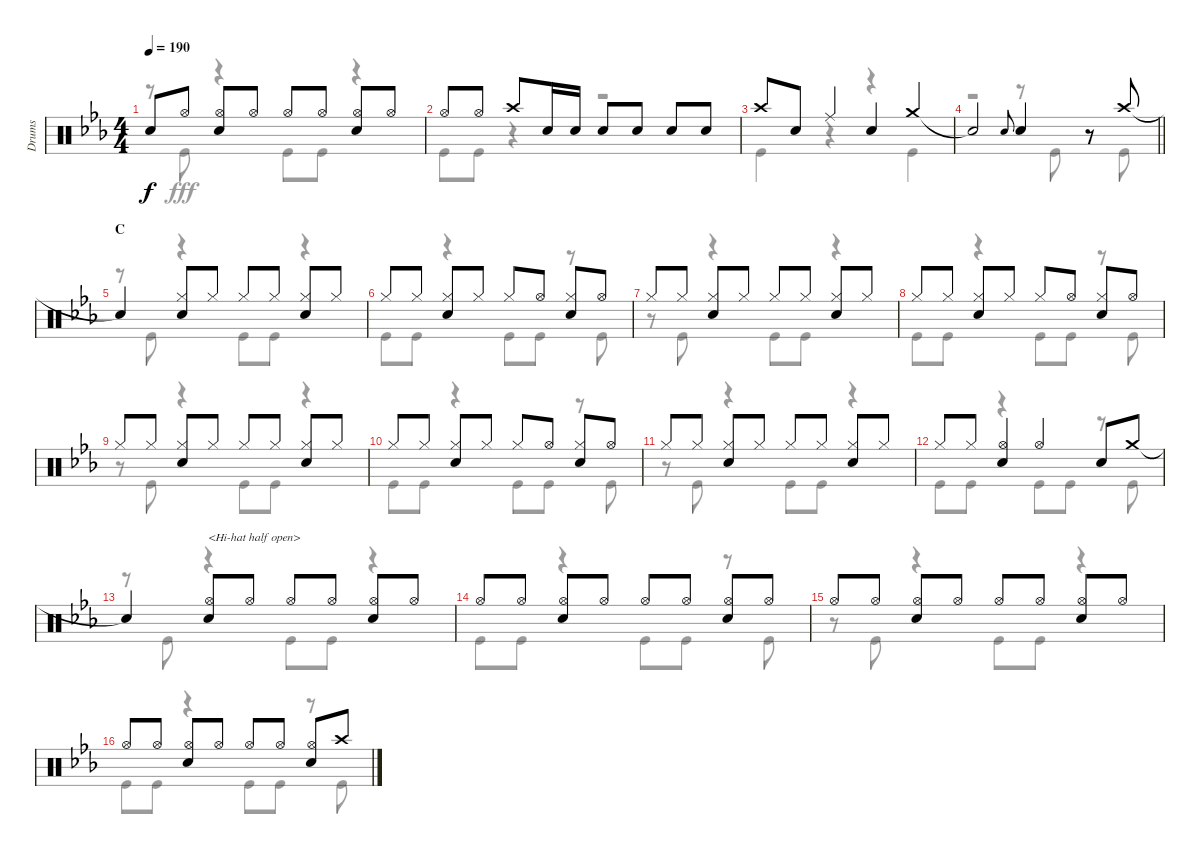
\track ("Drums" "Drums") {instrument percussion}
\staff {score}
\articulation defaults
\voice
\ts (4 4)
\tempo 190
\clef neutral
\ks eb "Snare (hit)"{t}.8{dy f} "Hi-Hat (open)".8
("Hi-Hat (open)" "Snare (hit) 2").8 "Hi-Hat (open)".8 "Hi-Hat (open)".8 "Hi-Hat (open)".8 ("Hi-Hat (open)" "Snare (hit) 2").8 "Hi-Hat (open)".8 |
"Hi-Hat (open)".8 "Hi-Hat (open)".8 "Crash high (hit)".8 "Snare (hit) 2".16 "Snare (hit) 2".16 "Snare (hit) 2".8 "Snare (hit) 2".8 "Snare (hit) 2".8 "Snare (hit) 2".8 |
"Crash high (hit)".8 "Snare (hit) 2".8 "Ride (middle)".4 "Snare (hit) 2".4 "Crash medium (hit)".4 |
\barLineRight lightlight "Snare (hit)"{t}.2 "Snare (hit) 2".8{gr onbeat} "Snare (hit) 2".4
r.8 "Crash high (hit)".8 |
\section ("" "C")
"Snare (hit)"{t}.4 ("Hi-Hat (closed)" "Snare (hit) 2").8 "Hi-Hat (closed)".8 "Hi-Hat (closed)".8 "Hi-Hat (closed)".8 ("Hi-Hat (closed)" "Snare (hit) 2").8 "Hi-Hat (closed)".8 |
"Hi-Hat (closed)".8 "Hi-Hat (closed)".8 ("Hi-Hat (closed)" "Snare (hit) 2").8 "Hi-Hat (closed)".8 "Hi-Hat (closed)".8 "Hi-Hat (open)".8 ("Hi-Hat (closed)" "Snare (hit) 2").8 "Hi-Hat (open)".8 |
"Hi-Hat (closed)".8 "Hi-Hat (closed)".8 ("Hi-Hat (closed)" "Snare (hit) 2").8 "Hi-Hat (closed)".8 "Hi-Hat (closed)".8 "Hi-Hat (closed)".8 ("Hi-Hat (closed)" "Snare (hit) 2").8 "Hi-Hat (closed)".8 |
"Hi-Hat (closed)".8 "Hi-Hat (closed)".8 ("Hi-Hat (closed)" "Snare (hit) 2").8 "Hi-Hat (closed)".8 "Hi-Hat (closed)".8 "Hi-Hat (open)".8 ("Hi-Hat (closed)" "Snare (hit) 2").8 "Hi-Hat (open)".8 |
"Hi-Hat (closed)".8 "Hi-Hat (closed)".8 ("Hi-Hat (closed)" "Snare (hit) 2").8 "Hi-Hat (closed)".8 "Hi-Hat (closed)".8 "Hi-Hat (closed)".8 ("Hi-Hat (closed)" "Snare (hit) 2").8 "Hi-Hat (closed)".8 |
"Hi-Hat (closed)".8 "Hi-Hat (closed)".8 ("Hi-Hat (closed)" "Snare (hit) 2").8 "Hi-Hat (closed)".8 "Hi-Hat (closed)".8 "Hi-Hat (open)".8 ("Hi-Hat (closed)" "Snare (hit) 2").8 "Hi-Hat (open)".8 |
"Hi-Hat (closed)".8 "Hi-Hat (closed)".8 ("Hi-Hat (closed)" "Snare (hit) 2").8 "Hi-Hat (closed)".8 "Hi-Hat (closed)".8 "Hi-Hat (closed)".8 ("Hi-Hat (closed)" "Snare (hit) 2").8 "Hi-Hat (closed)".8 |
"Hi-Hat (closed)".8 "Hi-Hat (closed)".8 ("Hi-Hat (open)" "Snare (hit) 2").4 "Hi-Hat (open)".4 "Snare (hit) 2".8 "Crash medium (hit)".8 |
"Snare (hit)"{t}.4 ("Hi-Hat (open)" "Snare (hit) 2").8{txt "<Hi-hat half open>"} "Hi-Hat (open)".8 "Hi-Hat (open)".8 "Hi-Hat (open)".8 ("Hi-Hat (open)" "Snare (hit) 2").8 "Hi-Hat (open)".8 |
"Hi-Hat (open)".8 "Hi-Hat (open)".8 ("Hi-Hat (open)" "Snare (hit) 2").8 "Hi-Hat (open)".8 "Hi-Hat (open)".8 "Hi-Hat (open)".8 ("Hi-Hat (open)" "Snare (hit) 2").8 "Hi-Hat (open)".8 |
"Hi-Hat (open)".8 "Hi-Hat (open)".8 ("Hi-Hat (open)" "Snare (hit) 2").8 "Hi-Hat (open)".8 "Hi-Hat (open)".8 "Hi-Hat (open)".8 ("Hi-Hat (open)" "Snare (hit) 2").8 "Hi-Hat (open)".8 |
"Hi-Hat (open)".8 "Hi-Hat (open)".8 ("Hi-Hat (open)" "Snare (hit) 2").8 "Hi-Hat (open)".8 "Hi-Hat (open)".8 "Hi-Hat (open)".8 ("Hi-Hat (open)" "Snare (hit) 2").8 "Crash high (hit)".8
\voice
\clef neutral
\ottava regular
\simile none
\ks eb
r.8{dy fff} "Kick (hit)".8 r.4 "Kick (hit)".8 "Kick (hit)".8 r.4 |
"Kick (hit)".8 "Kick (hit)".8 r.4 r.2 |
"Kick (hit)".4 r.4 r.4 "Kick (hit)".4 |
\barLineRight lightlight
r.2 r.8 "Kick (hit)".8 r.8 "Kick (hit)".8 |
r.8 "Kick (hit)".8 r.4 "Kick (hit)".8 "Kick (hit)".8 r.4 |
"Kick (hit)".8 "Kick (hit)".8 r.4 "Kick (hit)".8 "Kick (hit)".8 r.8 "Kick (hit)".8 |
r.8 "Kick (hit)".8 r.4 "Kick (hit)".8 "Kick (hit)".8 r.4 |
"Kick (hit)".8 "Kick (hit)".8 r.4 "Kick (hit)".8 "Kick (hit)".8 r.8 "Kick (hit)".8 |
r.8 "Kick (hit)".8 r.4 "Kick (hit)".8 "Kick (hit)".8 r.4 |
"Kick (hit)".8 "Kick (hit)".8 r.4 "Kick (hit)".8 "Kick (hit)".8 r.8 "Kick (hit)".8 |
r.8 "Kick (hit)".8 r.4 "Kick (hit)".8 "Kick (hit)".8 r.4 |
"Kick (hit)".8 "Kick (hit)".8 r.4 "Kick (hit)".8 "Kick (hit)".8 r.8 "Kick (hit)".8 |
r.8 "Kick (hit)".8 r.4 "Kick (hit)".8 "Kick (hit)".8 r.4 |
"Kick (hit)".8 "Kick (hit)".8 r.4 "Kick (hit)".8 "Kick (hit)".8 r.8 "Kick (hit)".8 |
r.8 "Kick (hit)".8 r.4 "Kick (hit)".8 "Kick (hit)".8 r.4 |
"Kick (hit)".8 "Kick (hit)".8 r.4 "Kick (hit)".8 "Kick (hit)".8 r.8 "Kick (hit)".8
